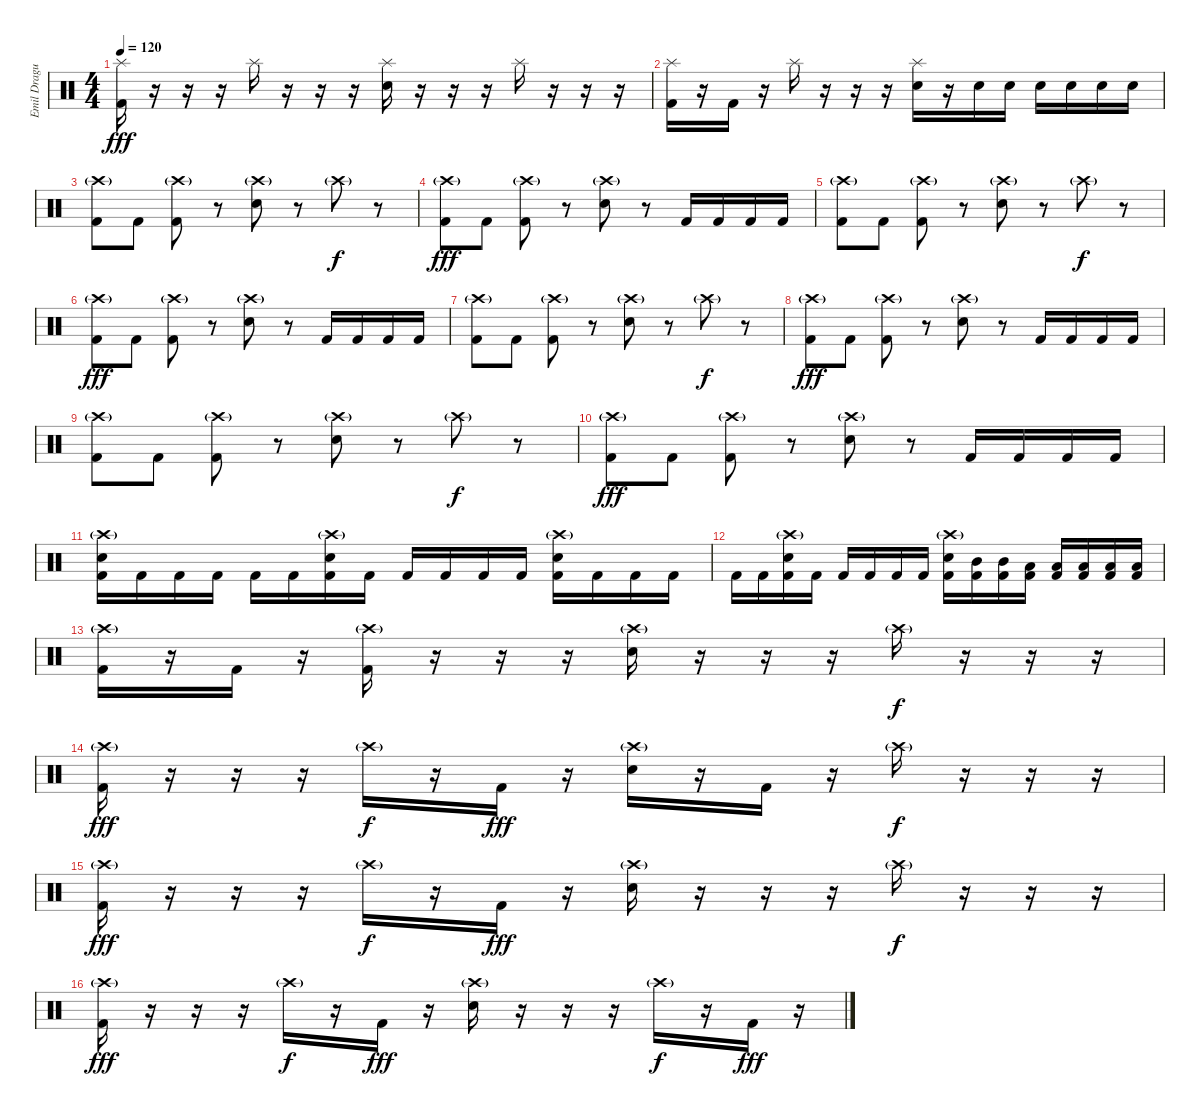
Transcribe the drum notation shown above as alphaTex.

\track ("Emil Dragutinovic" "Emil Dragu") {instrument percussion}
\staff {score}
\articulation defaults
\ts (4 4)
\tempo 120
\clef neutral
\ks c
("Splash (hit)" "Kick (hit) 2").16{dy fff} r.16 r.16 r.16 "Splash (hit)".16 r.16 r.16 r.16 ("Splash (hit)" "Electric Snare (hit)").16 r.16 r.16 r.16 "Splash (hit)".16 r.16 r.16 r.16 |
("Splash (hit)" "Kick (hit) 2").16 r.16 "Kick (hit) 2".16 r.16 "Splash (hit)".16 r.16 r.16 r.16 ("Splash (hit)" "Electric Snare (hit)").16 r.16 "Electric Snare (hit)".16 "Electric Snare (hit)".16 "Electric Snare (hit)".16 "Electric Snare (hit)".16 "Electric Snare (hit)".16 "Electric Snare (hit)".16 |
("Crash high (hit)"{g} "Kick (hit) 2").8 "Kick (hit) 2".8 ("Crash high (hit)"{g} "Kick (hit) 2").8 r.8 ("Crash high (hit)"{g} "Electric Snare (hit)").8 r.8 "Crash high (hit)"{g}.8{dy f} r.8 |
("Crash high (hit)"{g} "Kick (hit) 2").8{dy fff} "Kick (hit) 2".8 ("Crash high (hit)"{g} "Kick (hit) 2").8 r.8 ("Crash high (hit)"{g} "Electric Snare (hit)").8 r.8 "Kick (hit) 2".16 "Kick (hit) 2".16 "Kick (hit) 2".16 "Kick (hit) 2".16 |
("Crash high (hit)"{g} "Kick (hit) 2").8 "Kick (hit) 2".8 ("Crash high (hit)"{g} "Kick (hit) 2").8 r.8 ("Crash high (hit)"{g} "Electric Snare (hit)").8 r.8 "Crash high (hit)"{g}.8{dy f} r.8 |
("Crash high (hit)"{g} "Kick (hit) 2").8{dy fff} "Kick (hit) 2".8 ("Crash high (hit)"{g} "Kick (hit) 2").8 r.8 ("Crash high (hit)"{g} "Electric Snare (hit)").8 r.8 "Kick (hit) 2".16 "Kick (hit) 2".16 "Kick (hit) 2".16 "Kick (hit) 2".16 |
("Crash high (hit)"{g} "Kick (hit) 2").8 "Kick (hit) 2".8 ("Crash high (hit)"{g} "Kick (hit) 2").8 r.8 ("Crash high (hit)"{g} "Electric Snare (hit)").8 r.8 "Crash high (hit)"{g}.8{dy f} r.8 |
("Crash high (hit)"{g} "Kick (hit) 2").8{dy fff} "Kick (hit) 2".8 ("Crash high (hit)"{g} "Kick (hit) 2").8 r.8 ("Crash high (hit)"{g} "Electric Snare (hit)").8 r.8 "Kick (hit) 2".16 "Kick (hit) 2".16 "Kick (hit) 2".16 "Kick (hit) 2".16 |
("Crash high (hit)"{g} "Kick (hit) 2").8 "Kick (hit) 2".8 ("Crash high (hit)"{g} "Kick (hit) 2").8 r.8 ("Crash high (hit)"{g} "Electric Snare (hit)").8 r.8 "Crash high (hit)"{g}.8{dy f} r.8 |
("Crash high (hit)"{g} "Kick (hit) 2").8{dy fff} "Kick (hit) 2".8 ("Crash high (hit)"{g} "Kick (hit) 2").8 r.8 ("Crash high (hit)"{g} "Electric Snare (hit)").8 r.8 "Kick (hit) 2".16 "Kick (hit) 2".16 "Kick (hit) 2".16 "Kick (hit) 2".16 |
("Crash high (hit)"{g} "Electric Snare (hit)" "Kick (hit) 2").16 "Kick (hit) 2".16 "Kick (hit) 2".16 "Kick (hit) 2".16 "Kick (hit) 2".16 "Kick (hit) 2".16 ("Crash high (hit)"{g} "Electric Snare (hit)" "Kick (hit) 2").16 "Kick (hit) 2".16 "Kick (hit) 2".16 "Kick (hit) 2".16 "Kick (hit) 2".16 "Kick (hit) 2".16 ("Crash high (hit)"{g} "Electric Snare (hit)" "Kick (hit) 2").16 "Kick (hit) 2".16 "Kick (hit) 2".16 "Kick (hit) 2".16 |
"Kick (hit) 2".16 "Kick (hit) 2".16 ("Crash high (hit)"{g} "Electric Snare (hit)" "Kick (hit) 2").16 "Kick (hit) 2".16 "Kick (hit) 2".16 "Kick (hit) 2".16 "Kick (hit) 2".16 "Kick (hit) 2".16 ("Crash high (hit)"{g} "Electric Snare (hit)" "Kick (hit) 2").16 ("Mid Tom (hit)" "Kick (hit) 2").16 ("Mid Tom (hit)" "Kick (hit) 2").16 ("Low Tom (hit)" "Kick (hit) 2").16 ("Low Tom (hit)" "Kick (hit) 2").16 ("Low Floor Tom (hit)" "Kick (hit) 2").16 ("Low Floor Tom (hit)" "Kick (hit) 2").16 ("Low Floor Tom (hit)" "Kick (hit) 2").16 |
("Crash high (hit)"{g} "Kick (hit) 2").16 r.16 "Kick (hit) 2".16 r.16 ("Crash high (hit)"{g} "Kick (hit) 2").16 r.16 r.16 r.16 ("Crash high (hit)"{g} "Electric Snare (hit)").16 r.16 r.16 r.16 "Crash high (hit)"{g}.16{dy f} r.16 r.16 r.16 |
("Crash high (hit)"{g} "Kick (hit) 2").16{dy fff} r.16 r.16 r.16 "Crash high (hit)"{g}.16{dy f} r.16 "Kick (hit) 2".16{dy fff} r.16 ("Crash high (hit)"{g} "Electric Snare (hit)").16 r.16 "Kick (hit) 2".16 r.16 "Crash high (hit)"{g}.16{dy f} r.16 r.16 r.16 |
("Crash high (hit)"{g} "Kick (hit) 2").16{dy fff} r.16 r.16 r.16 "Crash high (hit)"{g}.16{dy f} r.16 "Kick (hit) 2".16{dy fff} r.16 ("Crash high (hit)"{g} "Electric Snare (hit)").16 r.16 r.16 r.16 "Crash high (hit)"{g}.16{dy f} r.16 r.16 r.16 |
("Crash high (hit)"{g} "Kick (hit) 2").16{dy fff} r.16 r.16 r.16 "Crash high (hit)"{g}.16{dy f} r.16 "Kick (hit) 2".16{dy fff} r.16 ("Crash high (hit)"{g} "Electric Snare (hit)").16 r.16 r.16 r.16 "Crash high (hit)"{g}.16{dy f} r.16 "Kick (hit) 2".16{dy fff} r.16
